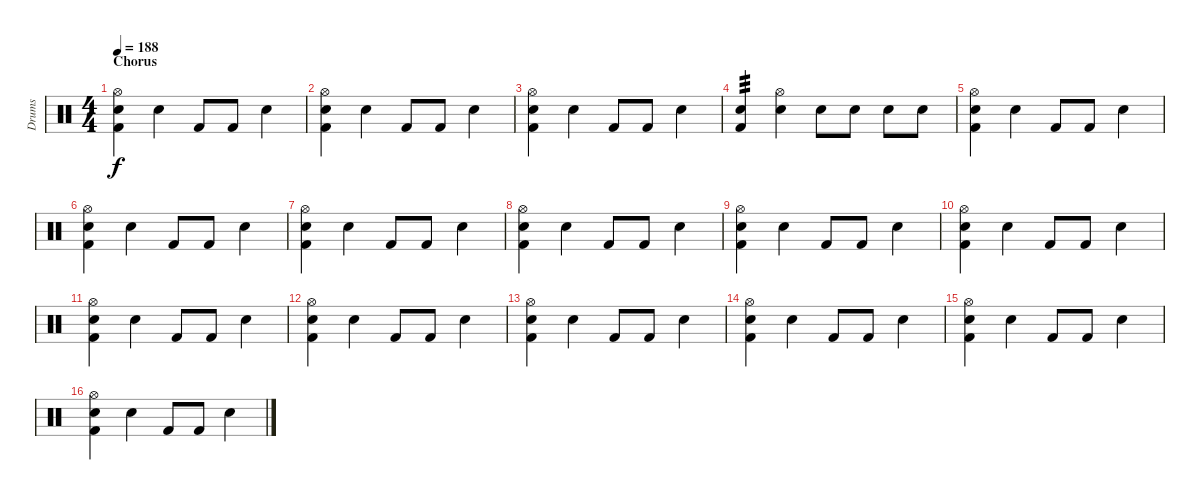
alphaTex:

\track ("Drums" "Drums") {instrument percussion}
\staff {score}
\articulation defaults
\ts (4 4)
\section ("" "Chorus")
\tempo 188
\clef neutral
\ks c
("Hi-Hat (open)" "Electric Snare (hit)" "Kick (hit) 2").4{dy f} "Electric Snare (hit)".4 "Kick (hit) 2".8 "Kick (hit) 2".8 "Electric Snare (hit)".4 |
("Hi-Hat (open)" "Electric Snare (hit)" "Kick (hit) 2").4 "Electric Snare (hit)".4 "Kick (hit) 2".8 "Kick (hit) 2".8 "Electric Snare (hit)".4 |
("Hi-Hat (open)" "Electric Snare (hit)" "Kick (hit) 2").4 "Electric Snare (hit)".4 "Kick (hit) 2".8 "Kick (hit) 2".8 "Electric Snare (hit)".4 |
("Electric Snare (hit)" "Kick (hit) 2").4{tp 3} ("Hi-Hat (open)" "Electric Snare (hit)").4 "Electric Snare (hit)".8 "Electric Snare (hit)".8 "Electric Snare (hit)".8 "Electric Snare (hit)".8 |
("Hi-Hat (open)" "Electric Snare (hit)" "Kick (hit) 2").4 "Electric Snare (hit)".4 "Kick (hit) 2".8 "Kick (hit) 2".8 "Electric Snare (hit)".4 |
("Hi-Hat (open)" "Electric Snare (hit)" "Kick (hit) 2").4 "Electric Snare (hit)".4 "Kick (hit) 2".8 "Kick (hit) 2".8 "Electric Snare (hit)".4 |
("Hi-Hat (open)" "Electric Snare (hit)" "Kick (hit) 2").4 "Electric Snare (hit)".4 "Kick (hit) 2".8 "Kick (hit) 2".8 "Electric Snare (hit)".4 |
("Hi-Hat (open)" "Electric Snare (hit)" "Kick (hit) 2").4 "Electric Snare (hit)".4 "Kick (hit) 2".8 "Kick (hit) 2".8 "Electric Snare (hit)".4 |
("Hi-Hat (open)" "Electric Snare (hit)" "Kick (hit) 2").4 "Electric Snare (hit)".4 "Kick (hit) 2".8 "Kick (hit) 2".8 "Electric Snare (hit)".4 |
("Hi-Hat (open)" "Electric Snare (hit)" "Kick (hit) 2").4 "Electric Snare (hit)".4 "Kick (hit) 2".8 "Kick (hit) 2".8 "Electric Snare (hit)".4 |
("Hi-Hat (open)" "Electric Snare (hit)" "Kick (hit) 2").4 "Electric Snare (hit)".4 "Kick (hit) 2".8 "Kick (hit) 2".8 "Electric Snare (hit)".4 |
("Hi-Hat (open)" "Electric Snare (hit)" "Kick (hit) 2").4 "Electric Snare (hit)".4 "Kick (hit) 2".8 "Kick (hit) 2".8 "Electric Snare (hit)".4 |
("Hi-Hat (open)" "Electric Snare (hit)" "Kick (hit) 2").4 "Electric Snare (hit)".4 "Kick (hit) 2".8 "Kick (hit) 2".8 "Electric Snare (hit)".4 |
("Hi-Hat (open)" "Electric Snare (hit)" "Kick (hit) 2").4 "Electric Snare (hit)".4 "Kick (hit) 2".8 "Kick (hit) 2".8 "Electric Snare (hit)".4 |
("Hi-Hat (open)" "Electric Snare (hit)" "Kick (hit) 2").4 "Electric Snare (hit)".4 "Kick (hit) 2".8 "Kick (hit) 2".8 "Electric Snare (hit)".4 |
("Hi-Hat (open)" "Electric Snare (hit)" "Kick (hit) 2").4 "Electric Snare (hit)".4 "Kick (hit) 2".8 "Kick (hit) 2".8 "Electric Snare (hit)".4
